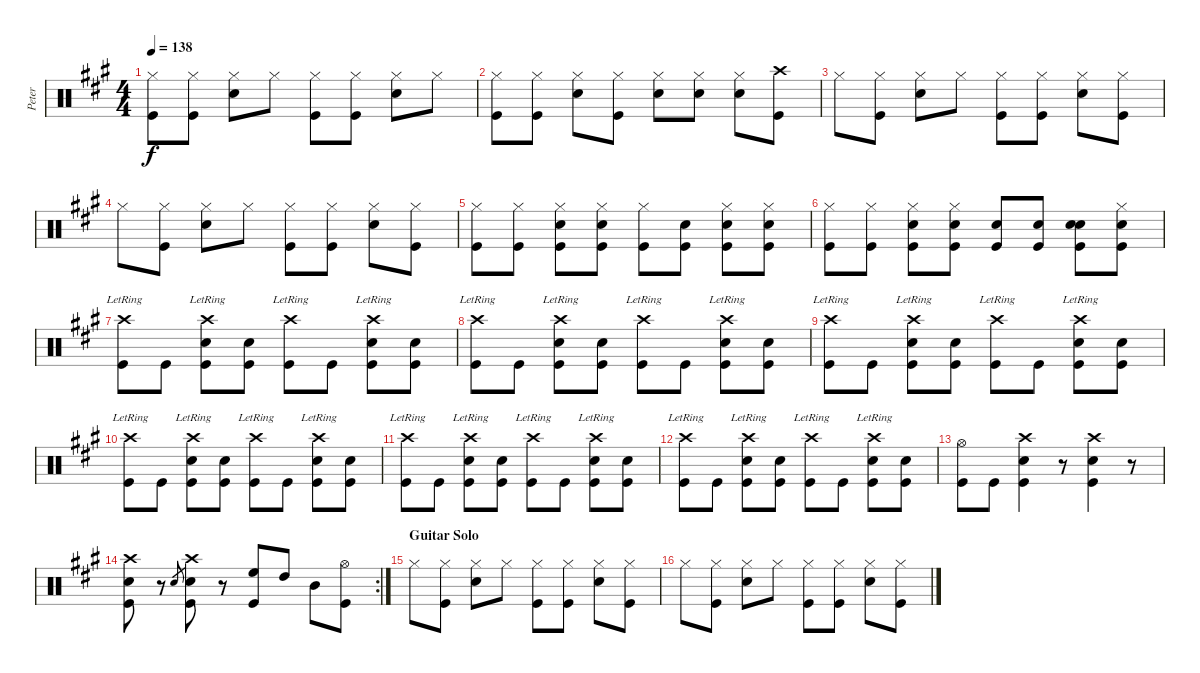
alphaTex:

\track ("Peter" "Peter") {instrument percussion}
\staff {score}
\articulation defaults
\ts (4 4)
\tempo 138
\clef neutral
\ks a
("Hi-Hat (closed)" "Kick (hit)").8{dy f} ("Hi-Hat (closed)" "Kick (hit)").8 ("Hi-Hat (closed)" "Snare (hit) 2").8 "Hi-Hat (closed)".8 ("Hi-Hat (closed)" "Kick (hit)").8 ("Hi-Hat (closed)" "Kick (hit)").8 ("Hi-Hat (closed)" "Snare (hit) 2").8 "Hi-Hat (closed)".8 |
("Hi-Hat (closed)" "Kick (hit)").8 ("Hi-Hat (closed)" "Kick (hit)").8 ("Hi-Hat (closed)" "Snare (hit) 2").8 ("Hi-Hat (closed)" "Kick (hit)").8 ("Hi-Hat (closed)" "Snare (hit) 2").8 ("Hi-Hat (closed)" "Snare (hit) 2").8 ("Hi-Hat (closed)" "Snare (hit) 2").8 ("Crash high (hit)" "Kick (hit)").8 |
"Hi-Hat (closed)".8 ("Hi-Hat (closed)" "Kick (hit)").8 ("Hi-Hat (closed)" "Snare (hit) 2").8 "Hi-Hat (closed)".8 ("Hi-Hat (closed)" "Kick (hit)").8 ("Hi-Hat (closed)" "Kick (hit)").8 ("Hi-Hat (closed)" "Snare (hit) 2").8 ("Hi-Hat (closed)" "Kick (hit)").8 |
"Hi-Hat (closed)".8 ("Hi-Hat (closed)" "Kick (hit)").8 ("Hi-Hat (closed)" "Snare (hit) 2").8 "Hi-Hat (closed)".8 ("Hi-Hat (closed)" "Kick (hit)").8 ("Hi-Hat (closed)" "Kick (hit)").8 ("Hi-Hat (closed)" "Snare (hit) 2").8 ("Hi-Hat (closed)" "Kick (hit)").8 |
("Hi-Hat (closed)" "Kick (hit)").8 ("Hi-Hat (closed)" "Kick (hit)").8 ("Hi-Hat (closed)" "Snare (hit) 2" "Kick (hit)").8 ("Hi-Hat (closed)" "Snare (hit) 2" "Kick (hit)").8 ("Hi-Hat (closed)" "Kick (hit)").8 ("Snare (hit)" "Kick (hit)").8 ("Hi-Hat (closed)" "Snare (hit) 2" "Kick (hit)").8 ("Hi-Hat (closed)" "Snare (hit) 2" "Kick (hit)").8 |
("Hi-Hat (closed)" "Kick (hit)").8 ("Hi-Hat (closed)" "Kick (hit)").8 ("Hi-Hat (closed)" "Snare (hit) 2" "Kick (hit)").8 ("Hi-Hat (closed)" "Snare (hit) 2" "Kick (hit)").8 ("Snare (hit)" "Kick (hit)").8 ("Snare (hit)" "Kick (hit)").8 ("Snare (hit)" "Snare (hit) 2" "Kick (hit)").8 ("Hi-Hat (closed)" "Snare (hit) 2" "Kick (hit)").8 |
("Crash high (hit)"{lr} "Kick (hit)").8 "Kick (hit)".8 ("Crash high (hit)"{lr} "Snare (hit) 2" "Kick (hit)").8 ("Snare (hit) 2" "Kick (hit)").8 ("Crash high (hit)"{lr} "Kick (hit)").8 "Kick (hit)".8 ("Crash high (hit)"{lr} "Snare (hit) 2" "Kick (hit)").8 ("Snare (hit) 2" "Kick (hit)").8 |
("Crash high (hit)"{lr} "Kick (hit)").8 "Kick (hit)".8 ("Crash high (hit)"{lr} "Snare (hit) 2" "Kick (hit)").8 ("Snare (hit) 2" "Kick (hit)").8 ("Crash high (hit)"{lr} "Kick (hit)").8 "Kick (hit)".8 ("Crash high (hit)"{lr} "Snare (hit) 2" "Kick (hit)").8 ("Snare (hit) 2" "Kick (hit)").8 |
("Crash high (hit)"{lr} "Kick (hit)").8 "Kick (hit)".8 ("Crash high (hit)"{lr} "Snare (hit) 2" "Kick (hit)").8 ("Snare (hit) 2" "Kick (hit)").8 ("Crash high (hit)"{lr} "Kick (hit)").8 "Kick (hit)".8 ("Crash high (hit)"{lr} "Snare (hit) 2" "Kick (hit)").8 ("Snare (hit) 2" "Kick (hit)").8 |
("Crash high (hit)"{lr} "Kick (hit)").8 "Kick (hit)".8 ("Crash high (hit)"{lr} "Snare (hit) 2" "Kick (hit)").8 ("Snare (hit) 2" "Kick (hit)").8 ("Crash high (hit)"{lr} "Kick (hit)").8 "Kick (hit)".8 ("Crash high (hit)"{lr} "Snare (hit) 2" "Kick (hit)").8 ("Snare (hit) 2" "Kick (hit)").8 |
("Crash high (hit)"{lr} "Kick (hit)").8 "Kick (hit)".8 ("Crash high (hit)"{lr} "Snare (hit) 2" "Kick (hit)").8 ("Snare (hit) 2" "Kick (hit)").8 ("Crash high (hit)"{lr} "Kick (hit)").8 "Kick (hit)".8 ("Crash high (hit)"{lr} "Snare (hit) 2" "Kick (hit)").8 ("Snare (hit) 2" "Kick (hit)").8 |
("Crash high (hit)"{lr} "Kick (hit)").8 "Kick (hit)".8 ("Crash high (hit)"{lr} "Snare (hit) 2" "Kick (hit)").8 ("Snare (hit) 2" "Kick (hit)").8 ("Crash high (hit)"{lr} "Kick (hit)").8 "Kick (hit)".8 ("Crash high (hit)"{lr} "Snare (hit) 2" "Kick (hit)").8 ("Snare (hit) 2" "Kick (hit)").8 |
("Hi-Hat (open)" "Kick (hit)").8 "Kick (hit)".8 ("Crash high (hit)" "Snare (hit) 2" "Kick (hit)").4 r.8 ("Crash high (hit)" "Snare (hit) 2" "Kick (hit)").4 r.8 |
\rc 2
("Crash high (hit)" "Snare (hit) 2" "Kick (hit)").8 r.8 "Snare (hit) 2".8{gr} ("Crash high (hit)" "Snare (hit) 2" "Kick (hit)").8 r.8 ("High Floor Tom (hit)" "Kick (hit)").8 "High Tom (hit)".8 "Mid Tom (hit)".8 ("Hi-Hat (open)" "Kick (hit)").8 |
\section ("" "Guitar Solo")
"Hi-Hat (closed)".8 ("Hi-Hat (closed)" "Kick (hit)").8 ("Hi-Hat (closed)" "Snare (hit) 2").8 "Hi-Hat (closed)".8 ("Hi-Hat (closed)" "Kick (hit)").8 ("Hi-Hat (closed)" "Kick (hit)").8 ("Hi-Hat (closed)" "Snare (hit) 2").8 ("Hi-Hat (closed)" "Kick (hit)").8 |
"Hi-Hat (closed)".8 ("Hi-Hat (closed)" "Kick (hit)").8 ("Hi-Hat (closed)" "Snare (hit) 2").8 "Hi-Hat (closed)".8 ("Hi-Hat (closed)" "Kick (hit)").8 ("Hi-Hat (closed)" "Kick (hit)").8 ("Hi-Hat (closed)" "Snare (hit) 2").8 ("Hi-Hat (closed)" "Kick (hit)").8
